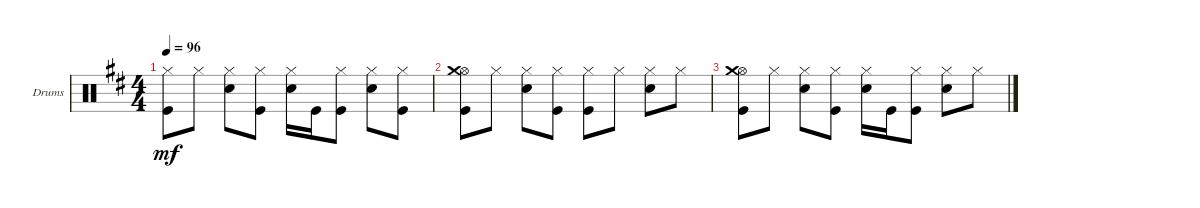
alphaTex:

\defaultSystemsLayout 4
\bracketExtendMode groupsimilarinstruments
\firstSystemTrackNameOrientation horizontal
\otherSystemsTrackNameOrientation horizontal
\track ("Drumkit" "Drums") {instrument percussion}
\staff {score}
\articulation defaults
\ts (4 4)
\tempo 96
\clef neutral
\ks d
("Hi-Hat (closed)" "Kick (hit)").8{dy mf} "Hi-Hat (closed)".8 ("Hi-Hat (closed)" "Snare (hit) 2").8 ("Hi-Hat (closed)" "Kick (hit)").8 ("Hi-Hat (closed)" "Snare (hit) 2").16 "Kick (hit)".16 ("Hi-Hat (closed)" "Kick (hit)").8 ("Hi-Hat (closed)" "Snare (hit) 2").8 ("Hi-Hat (closed)" "Kick (hit)").8 |
("Hi-Hat (open)" "Crash medium (hit)" "Kick (hit)").8 "Hi-Hat (closed)".8 ("Hi-Hat (closed)" "Snare (hit) 2").8 ("Hi-Hat (closed)" "Kick (hit)").8 ("Hi-Hat (closed)" "Kick (hit)").8 "Hi-Hat (closed)".8 ("Hi-Hat (closed)" "Snare (hit) 2").8 "Hi-Hat (closed)".8 |
("Hi-Hat (open)" "Crash medium (hit)" "Kick (hit)").8 "Hi-Hat (closed)".8 ("Hi-Hat (closed)" "Snare (hit) 2").8 ("Hi-Hat (closed)" "Kick (hit)").8 ("Snare (hit) 2" "Hi-Hat (closed)").16 "Kick (hit)".16 ("Kick (hit)" "Hi-Hat (closed)").8 ("Hi-Hat (closed)" "Snare (hit) 2").8 "Hi-Hat (closed)".8
